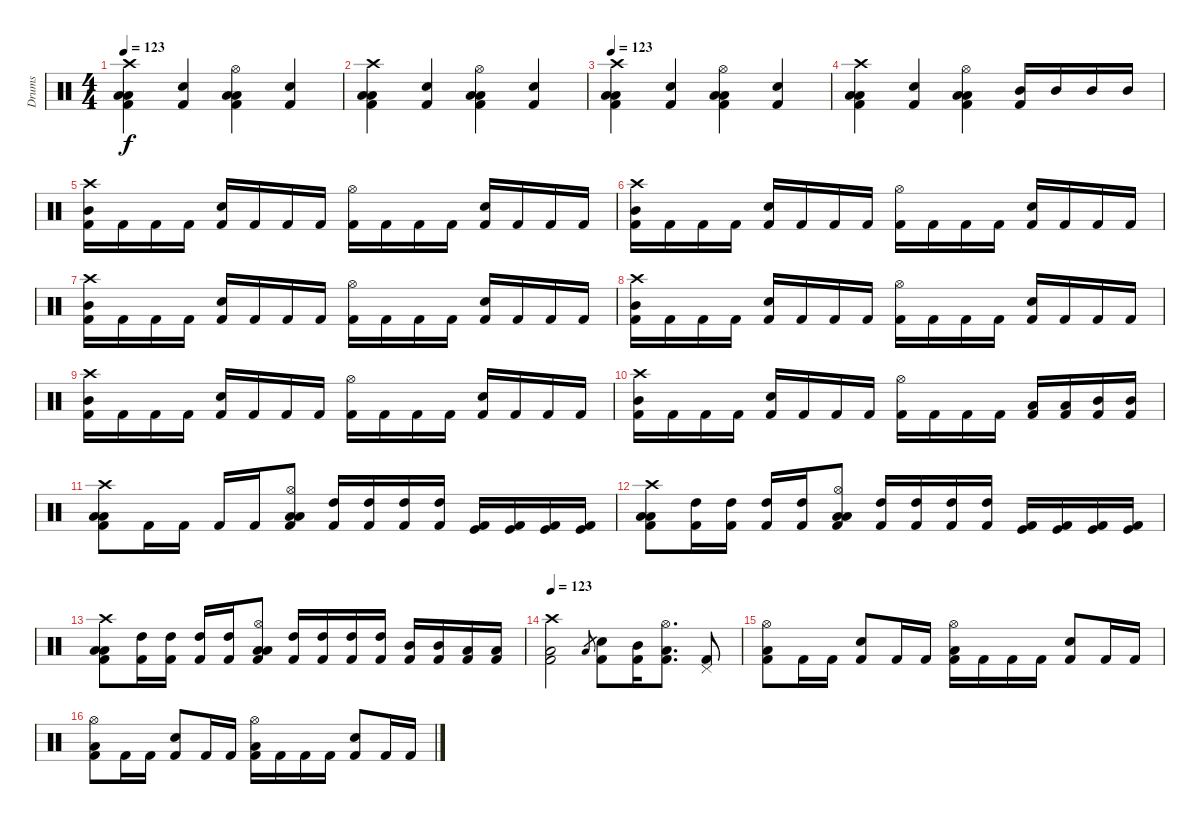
\track ("Drums" "Drums") {instrument percussion}
\staff {score}
\articulation defaults
\ts (4 4)
\tempo 123
\clef neutral
\ks c
("Crash high (hit)" "Low Floor Tom (hit)" "Low Floor Tom (hit)" "Kick (hit) 2").4{dy f} ("Snare (hit) 2" "Kick (hit) 2").4 ("Hi-Hat (open)" "Low Floor Tom (hit)" "Low Floor Tom (hit)" "Kick (hit) 2").4 ("Snare (hit) 2" "Kick (hit) 2").4 |
("Crash high (hit)" "Low Floor Tom (hit)" "Low Floor Tom (hit)" "Kick (hit) 2").4 ("Snare (hit) 2" "Kick (hit) 2").4 ("Hi-Hat (open)" "Low Floor Tom (hit)" "Low Floor Tom (hit)" "Kick (hit) 2").4 ("Snare (hit) 2" "Kick (hit) 2").4 |
\tempo 123
("Crash high (hit)" "Low Floor Tom (hit)" "Low Floor Tom (hit)" "Kick (hit) 2").4 ("Snare (hit) 2" "Kick (hit) 2").4 ("Hi-Hat (open)" "Low Floor Tom (hit)" "Low Floor Tom (hit)" "Kick (hit) 2").4 ("Snare (hit) 2" "Kick (hit) 2").4 |
("Crash high (hit)" "Low Floor Tom (hit)" "Low Floor Tom (hit)" "Kick (hit) 2").4 ("Snare (hit) 2" "Kick (hit) 2").4 ("Hi-Hat (open)" "Low Floor Tom (hit)" "Low Floor Tom (hit)" "Kick (hit) 2").4 ("Mid Tom (hit)" "Kick (hit) 2").16 "Mid Tom (hit)".16 "Mid Tom (hit)".16 "Mid Tom (hit)".16 |
("Crash high (hit)" "Mid Tom (hit)" "Kick (hit) 2").16 "Kick (hit) 2".16 "Kick (hit) 2".16 "Kick (hit) 2".16 ("Snare (hit) 2" "Kick (hit) 2").16 "Kick (hit) 2".16 "Kick (hit) 2".16 "Kick (hit) 2".16 ("Hi-Hat (open)" "Kick (hit) 2").16 "Kick (hit) 2".16 "Kick (hit) 2".16 "Kick (hit) 2".16 ("Snare (hit) 2" "Kick (hit) 2").16 "Kick (hit) 2".16 "Kick (hit) 2".16 "Kick (hit) 2".16 |
("Crash high (hit)" "Mid Tom (hit)" "Kick (hit) 2").16 "Kick (hit) 2".16 "Kick (hit) 2".16 "Kick (hit) 2".16 ("Snare (hit) 2" "Kick (hit) 2").16 "Kick (hit) 2".16 "Kick (hit) 2".16 "Kick (hit) 2".16 ("Hi-Hat (open)" "Kick (hit) 2").16 "Kick (hit) 2".16 "Kick (hit) 2".16 "Kick (hit) 2".16 ("Snare (hit) 2" "Kick (hit) 2").16 "Kick (hit) 2".16 "Kick (hit) 2".16 "Kick (hit) 2".16 |
("Crash high (hit)" "Mid Tom (hit)" "Kick (hit) 2").16 "Kick (hit) 2".16 "Kick (hit) 2".16 "Kick (hit) 2".16 ("Snare (hit) 2" "Kick (hit) 2").16 "Kick (hit) 2".16 "Kick (hit) 2".16 "Kick (hit) 2".16 ("Hi-Hat (open)" "Kick (hit) 2").16 "Kick (hit) 2".16 "Kick (hit) 2".16 "Kick (hit) 2".16 ("Snare (hit) 2" "Kick (hit) 2").16 "Kick (hit) 2".16 "Kick (hit) 2".16 "Kick (hit) 2".16 |
("Crash high (hit)" "Mid Tom (hit)" "Kick (hit) 2").16 "Kick (hit) 2".16 "Kick (hit) 2".16 "Kick (hit) 2".16 ("Snare (hit) 2" "Kick (hit) 2").16 "Kick (hit) 2".16 "Kick (hit) 2".16 "Kick (hit) 2".16 ("Hi-Hat (open)" "Kick (hit) 2").16 "Kick (hit) 2".16 "Kick (hit) 2".16 "Kick (hit) 2".16 ("Snare (hit) 2" "Kick (hit) 2").16 "Kick (hit) 2".16 "Kick (hit) 2".16 "Kick (hit) 2".16 |
("Crash high (hit)" "Mid Tom (hit)" "Kick (hit) 2").16 "Kick (hit) 2".16 "Kick (hit) 2".16 "Kick (hit) 2".16 ("Snare (hit) 2" "Kick (hit) 2").16 "Kick (hit) 2".16 "Kick (hit) 2".16 "Kick (hit) 2".16 ("Hi-Hat (open)" "Kick (hit) 2").16 "Kick (hit) 2".16 "Kick (hit) 2".16 "Kick (hit) 2".16 ("Snare (hit) 2" "Kick (hit) 2").16 "Kick (hit) 2".16 "Kick (hit) 2".16 "Kick (hit) 2".16 |
("Crash high (hit)" "Mid Tom (hit)" "Kick (hit) 2").16 "Kick (hit) 2".16 "Kick (hit) 2".16 "Kick (hit) 2".16 ("Snare (hit) 2" "Kick (hit) 2").16 "Kick (hit) 2".16 "Kick (hit) 2".16 "Kick (hit) 2".16 ("Hi-Hat (open)" "Kick (hit) 2").16 "Kick (hit) 2".16 "Kick (hit) 2".16 "Kick (hit) 2".16 ("Low Tom (hit)" "Kick (hit) 2").16 ("Low Tom (hit)" "Kick (hit) 2").16 ("Mid Tom (hit)" "Kick (hit) 2").16 ("Mid Tom (hit)" "Kick (hit) 2").16 |
("Crash high (hit)" "Low Floor Tom (hit)" "Low Floor Tom (hit)" "Kick (hit) 2").8 "Kick (hit) 2".16 "Kick (hit) 2".16 "Kick (hit) 2".16 "Kick (hit) 2".16 ("Hi-Hat (open)" "Low Tom (hit)" "Low Tom (hit)" "Kick (hit) 2").8 ("High Tom (hit)" "Kick (hit) 2").16 ("High Tom (hit)" "Kick (hit) 2").16 ("High Tom (hit)" "Kick (hit) 2").16 ("High Tom (hit)" "Kick (hit) 2").16 ("Kick (hit)" "Kick (hit) 2").16 ("Kick (hit)" "Kick (hit) 2").16 ("Kick (hit)" "Kick (hit) 2").16 ("Kick (hit)" "Kick (hit) 2").16 |
("Crash high (hit)" "Low Floor Tom (hit)" "Low Floor Tom (hit)" "Kick (hit) 2").8 ("High Tom (hit)" "Kick (hit) 2").16 ("High Tom (hit)" "Kick (hit) 2").16 ("High Tom (hit)" "Kick (hit) 2").16 ("High Tom (hit)" "Kick (hit) 2").16 ("Hi-Hat (open)" "Low Tom (hit)" "Low Tom (hit)" "Kick (hit) 2").8 ("High Tom (hit)" "Kick (hit) 2").16 ("High Tom (hit)" "Kick (hit) 2").16 ("High Tom (hit)" "Kick (hit) 2").16 ("High Tom (hit)" "Kick (hit) 2").16 ("Kick (hit)" "Kick (hit) 2").16 ("Kick (hit)" "Kick (hit) 2").16 ("Kick (hit)" "Kick (hit) 2").16 ("Kick (hit)" "Kick (hit) 2").16 |
("Crash high (hit)" "Low Floor Tom (hit)" "Low Floor Tom (hit)" "Kick (hit) 2").8 ("High Tom (hit)" "Kick (hit) 2").16 ("High Tom (hit)" "Kick (hit) 2").16 ("High Tom (hit)" "Kick (hit) 2").16 ("High Tom (hit)" "Kick (hit) 2").16 ("Hi-Hat (open)" "Low Tom (hit)" "Low Tom (hit)" "Kick (hit) 2").8 ("High Tom (hit)" "Kick (hit) 2").16 ("High Tom (hit)" "Kick (hit) 2").16 ("High Tom (hit)" "Kick (hit) 2").16 ("High Tom (hit)" "Kick (hit) 2").16 ("Mid Tom (hit)" "Kick (hit) 2").16 ("Mid Tom (hit)" "Kick (hit) 2").16 ("Low Tom (hit)" "Kick (hit) 2").16 ("Low Tom (hit)" "Kick (hit) 2").16 |
\tempo 123
("Crash high (hit)" "Low Floor Tom (hit)" "Kick (hit) 2").2 "Low Tom (hit)".8{gr} ("Snare (hit) 2" "Kick (hit) 2").8 ("Mid Tom (hit)" "Kick (hit) 2").16 ("Hi-Hat (open)" "Low Floor Tom (hit)" "Kick (hit) 2").8{d} ("Pedal Hi-Hat (hit)" "Kick (hit) 2").8 |
("Hi-Hat (open)" "Low Floor Tom (hit)" "Kick (hit) 2").8 "Kick (hit) 2".16 "Kick (hit) 2".16 ("Snare (hit) 2" "Kick (hit) 2").8 "Kick (hit) 2".16 "Kick (hit) 2".16 ("Hi-Hat (open)" "Low Floor Tom (hit)" "Kick (hit) 2").16 "Kick (hit) 2".16 "Kick (hit) 2".16 "Kick (hit) 2".16 ("Snare (hit) 2" "Kick (hit) 2").8 "Kick (hit) 2".16 "Kick (hit) 2".16 |
("Hi-Hat (open)" "Low Floor Tom (hit)" "Kick (hit) 2").8 "Kick (hit) 2".16 "Kick (hit) 2".16 ("Snare (hit) 2" "Kick (hit) 2").8 "Kick (hit) 2".16 "Kick (hit) 2".16 ("Hi-Hat (open)" "Low Floor Tom (hit)" "Kick (hit) 2").16 "Kick (hit) 2".16 "Kick (hit) 2".16 "Kick (hit) 2".16 ("Snare (hit) 2" "Kick (hit) 2").8 "Kick (hit) 2".16 "Kick (hit) 2".16
